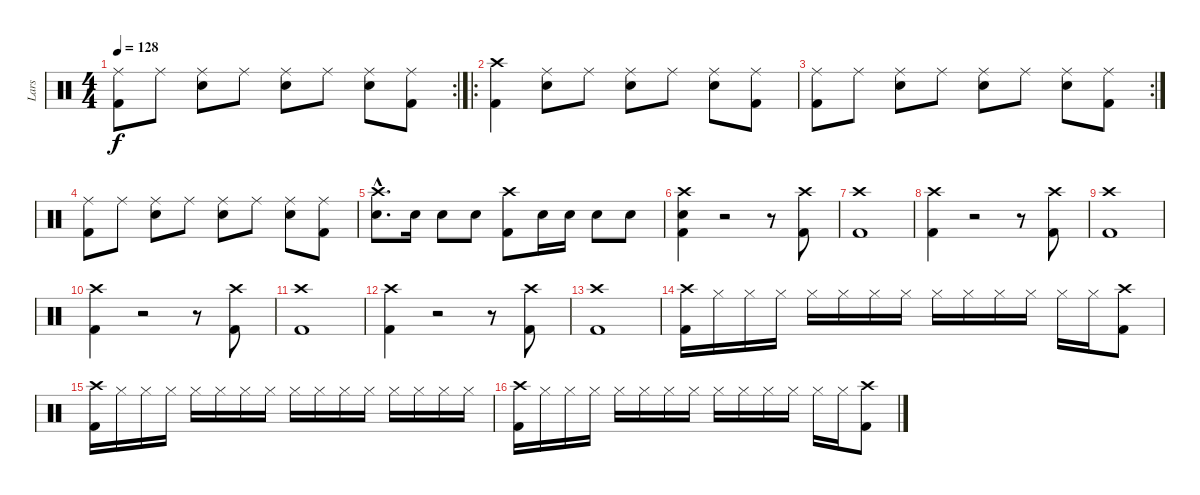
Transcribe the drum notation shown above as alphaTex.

\track ("Lars" "Lars") {instrument percussion}
\staff {score}
\articulation defaults
\rc 2
\ts (4 4)
\tempo 128
\clef neutral
\ks c
("Ride (middle)" "Kick (hit) 2").8{dy f} "Ride (middle)".8 ("Ride (middle)" "Electric Snare (hit)").8 "Ride (middle)".8 ("Ride (middle)" "Electric Snare (hit)").8 "Ride (middle)".8 ("Ride (middle)" "Electric Snare (hit)").8 ("Ride (middle)" "Kick (hit) 2").8 |
\ro
("Crash high (hit)" "Kick (hit) 2").4 ("Ride (middle)" "Electric Snare (hit)").8 "Ride (middle)".8 ("Ride (middle)" "Electric Snare (hit)").8 "Ride (middle)".8 ("Ride (middle)" "Electric Snare (hit)").8 ("Ride (middle)" "Kick (hit) 2").8 |
\rc 2
("Ride (middle)" "Kick (hit) 2").8 "Ride (middle)".8 ("Ride (middle)" "Electric Snare (hit)").8 "Ride (middle)".8 ("Ride (middle)" "Electric Snare (hit)").8 "Ride (middle)".8 ("Ride (middle)" "Electric Snare (hit)").8 ("Ride (middle)" "Kick (hit) 2").8 |
("Ride (middle)" "Kick (hit) 2").8 "Ride (middle)".8 ("Ride (middle)" "Electric Snare (hit)").8 "Ride (middle)".8 ("Ride (middle)" "Electric Snare (hit)").8 "Ride (middle)".8 ("Ride (middle)" "Electric Snare (hit)").8 ("Ride (middle)" "Kick (hit) 2").8 |
("Crash high (hit)"{hac} "Electric Snare (hit)"{hac}).8{d} "Electric Snare (hit)".16 "Electric Snare (hit)".8 "Electric Snare (hit)".8 ("Crash high (hit)" "Kick (hit) 2").8 "Electric Snare (hit)".16 "Electric Snare (hit)".16 "Electric Snare (hit)".8 "Electric Snare (hit)".8 |
("Crash high (hit)" "Electric Snare (hit)" "Kick (hit) 2").4 r.2 r.8 ("Crash high (hit)" "Kick (hit) 2").8 |
("Crash high (hit)" "Kick (hit) 2").1 |
("Crash high (hit)" "Kick (hit) 2").4 r.2 r.8 ("Crash high (hit)" "Kick (hit) 2").8 |
("Crash high (hit)" "Kick (hit) 2").1 |
("Crash high (hit)" "Kick (hit) 2").4 r.2 r.8 ("Crash high (hit)" "Kick (hit) 2").8 |
("Crash high (hit)" "Kick (hit) 2").1 |
("Crash high (hit)" "Kick (hit) 2").4 r.2 r.8 ("Crash high (hit)" "Kick (hit) 2").8 |
("Crash high (hit)" "Kick (hit) 2").1 |
("Crash high (hit)" "Kick (hit) 2").16 "Hi-Hat (closed)".16 "Hi-Hat (closed)".16 "Hi-Hat (closed)".16 "Hi-Hat (closed)".16 "Hi-Hat (closed)".16 "Hi-Hat (closed)".16 "Hi-Hat (closed)".16 "Hi-Hat (closed)".16 "Hi-Hat (closed)".16 "Hi-Hat (closed)".16 "Hi-Hat (closed)".16 "Hi-Hat (closed)".16 "Hi-Hat (closed)".16 ("Crash high (hit)" "Kick (hit) 2").8 |
("Crash high (hit)" "Kick (hit) 2").16 "Hi-Hat (closed)".16 "Hi-Hat (closed)".16 "Hi-Hat (closed)".16 "Hi-Hat (closed)".16 "Hi-Hat (closed)".16 "Hi-Hat (closed)".16 "Hi-Hat (closed)".16 "Hi-Hat (closed)".16 "Hi-Hat (closed)".16 "Hi-Hat (closed)".16 "Hi-Hat (closed)".16 "Hi-Hat (closed)".16 "Hi-Hat (closed)".16 "Hi-Hat (closed)".16 "Hi-Hat (closed)".16 |
("Crash high (hit)" "Kick (hit) 2").16 "Hi-Hat (closed)".16 "Hi-Hat (closed)".16 "Hi-Hat (closed)".16 "Hi-Hat (closed)".16 "Hi-Hat (closed)".16 "Hi-Hat (closed)".16 "Hi-Hat (closed)".16 "Hi-Hat (closed)".16 "Hi-Hat (closed)".16 "Hi-Hat (closed)".16 "Hi-Hat (closed)".16 "Hi-Hat (closed)".16 "Hi-Hat (closed)".16 ("Crash high (hit)" "Kick (hit) 2").8
